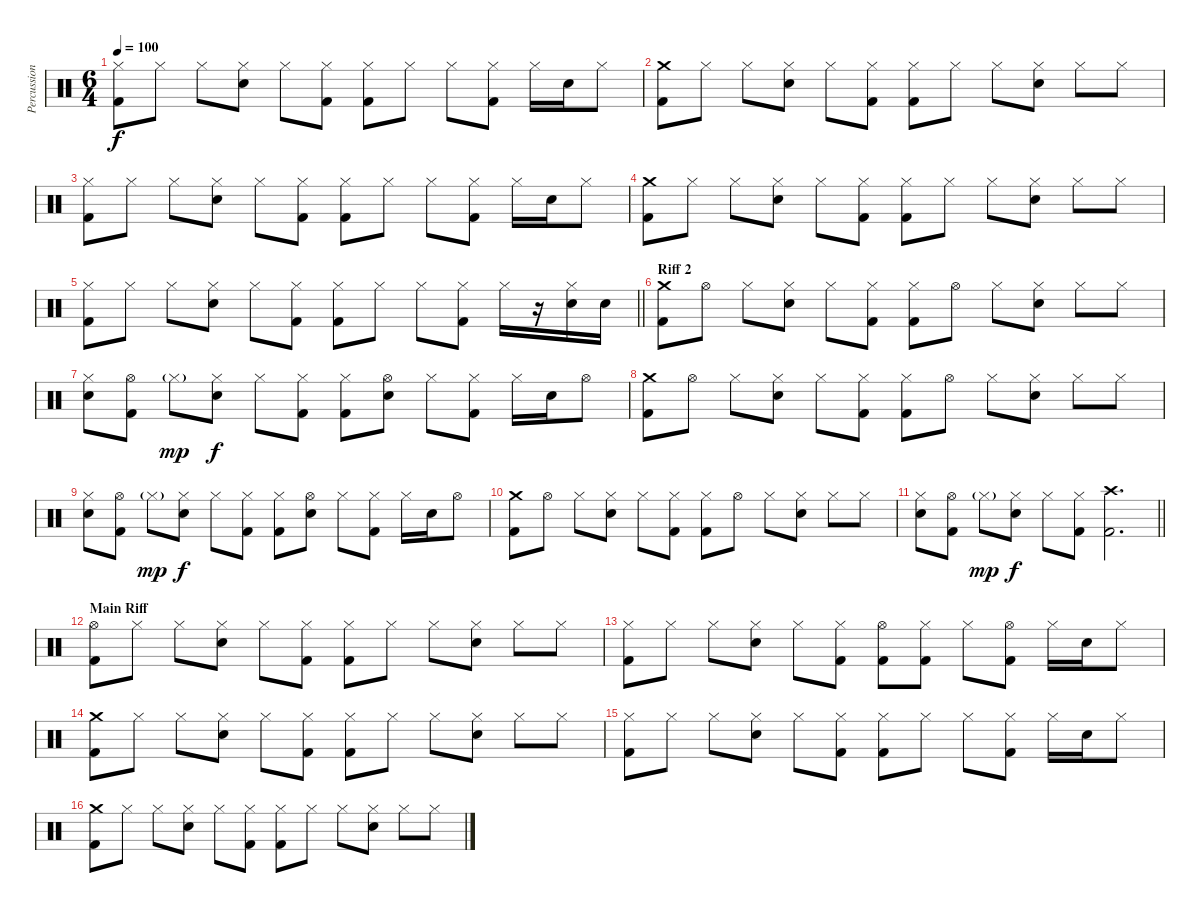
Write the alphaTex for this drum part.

\track ("Percussions" "Percussion") {instrument percussion}
\staff {score}
\articulation defaults
\ts (6 4)
\tempo 100
\clef neutral
\ks c
("Hi-Hat (closed)" "Kick (hit) 2").8{dy f} "Hi-Hat (closed)".8 "Hi-Hat (closed)".8 ("Electric Snare (hit)" "Hi-Hat (closed)").8 "Hi-Hat (closed)".8 ("Hi-Hat (closed)" "Kick (hit) 2").8 ("Hi-Hat (closed)" "Kick (hit) 2").8 "Hi-Hat (closed)".8 "Hi-Hat (closed)".8 ("Hi-Hat (closed)" "Kick (hit) 2").8 "Hi-Hat (closed)".16 "Electric Snare (hit)".16 "Hi-Hat (closed)".8 |
("Crash medium (hit)" "Kick (hit) 2").8 "Hi-Hat (closed)".8 "Hi-Hat (closed)".8 ("Electric Snare (hit)" "Hi-Hat (closed)").8 "Hi-Hat (closed)".8 ("Hi-Hat (closed)" "Kick (hit) 2").8 ("Hi-Hat (closed)" "Kick (hit) 2").8 "Hi-Hat (closed)".8 "Hi-Hat (closed)".8 ("Electric Snare (hit)" "Hi-Hat (closed)").8 "Hi-Hat (closed)".8 "Hi-Hat (closed)".8 |
("Hi-Hat (closed)" "Kick (hit) 2").8 "Hi-Hat (closed)".8 "Hi-Hat (closed)".8 ("Electric Snare (hit)" "Hi-Hat (closed)").8 "Hi-Hat (closed)".8 ("Hi-Hat (closed)" "Kick (hit) 2").8 ("Hi-Hat (closed)" "Kick (hit) 2").8 "Hi-Hat (closed)".8 "Hi-Hat (closed)".8 ("Hi-Hat (closed)" "Kick (hit) 2").8 "Hi-Hat (closed)".16 "Electric Snare (hit)".16 "Hi-Hat (closed)".8 |
("Crash medium (hit)" "Kick (hit) 2").8 "Hi-Hat (closed)".8 "Hi-Hat (closed)".8 ("Electric Snare (hit)" "Hi-Hat (closed)").8 "Hi-Hat (closed)".8 ("Hi-Hat (closed)" "Kick (hit) 2").8 ("Hi-Hat (closed)" "Kick (hit) 2").8 "Hi-Hat (closed)".8 "Hi-Hat (closed)".8 ("Electric Snare (hit)" "Hi-Hat (closed)").8 "Hi-Hat (closed)".8 "Hi-Hat (closed)".8 |
\barLineRight lightlight
("Hi-Hat (closed)" "Kick (hit) 2").8 "Hi-Hat (closed)".8 "Hi-Hat (closed)".8 ("Electric Snare (hit)" "Hi-Hat (closed)").8 "Hi-Hat (closed)".8 ("Hi-Hat (closed)" "Kick (hit) 2").8 ("Hi-Hat (closed)" "Kick (hit) 2").8 "Hi-Hat (closed)".8 "Hi-Hat (closed)".8 ("Hi-Hat (closed)" "Kick (hit) 2").8 "Hi-Hat (closed)".16 r.16 ("Electric Snare (hit)" "Hi-Hat (closed)").16 "Electric Snare (hit)".16 |
\section ("" "Riff 2")
("Crash medium (hit)" "Kick (hit) 2").8 "Hi-Hat (open)".8 "Hi-Hat (closed)".8 ("Electric Snare (hit)" "Hi-Hat (closed)").8 "Hi-Hat (closed)".8 ("Hi-Hat (closed)" "Kick (hit) 2").8 ("Hi-Hat (closed)" "Kick (hit) 2").8 "Hi-Hat (open)".8 "Hi-Hat (closed)".8 ("Electric Snare (hit)" "Hi-Hat (closed)").8 "Hi-Hat (closed)".8 "Hi-Hat (closed)".8 |
("Electric Snare (hit)" "Hi-Hat (closed)").8 ("Kick (hit) 2" "Hi-Hat (open)").8 "Hi-Hat (closed)"{g}.8{dy mp} ("Electric Snare (hit)" "Hi-Hat (closed)").8{dy f} "Hi-Hat (closed)".8 ("Kick (hit) 2" "Hi-Hat (closed)").8 ("Kick (hit) 2" "Hi-Hat (closed)").8 ("Electric Snare (hit)" "Hi-Hat (open)").8 "Hi-Hat (closed)".8 ("Kick (hit) 2" "Hi-Hat (closed)").8 "Hi-Hat (closed)".16 "Electric Snare (hit)".16 "Hi-Hat (open)".8 |
("Crash medium (hit)" "Kick (hit) 2").8 "Hi-Hat (open)".8 "Hi-Hat (closed)".8 ("Electric Snare (hit)" "Hi-Hat (closed)").8 "Hi-Hat (closed)".8 ("Hi-Hat (closed)" "Kick (hit) 2").8 ("Hi-Hat (closed)" "Kick (hit) 2").8 "Hi-Hat (open)".8 "Hi-Hat (closed)".8 ("Electric Snare (hit)" "Hi-Hat (closed)").8 "Hi-Hat (closed)".8 "Hi-Hat (closed)".8 |
("Electric Snare (hit)" "Hi-Hat (closed)").8 ("Kick (hit) 2" "Hi-Hat (open)").8 "Hi-Hat (closed)"{g}.8{dy mp} ("Electric Snare (hit)" "Hi-Hat (closed)").8{dy f} "Hi-Hat (closed)".8 ("Kick (hit) 2" "Hi-Hat (closed)").8 ("Kick (hit) 2" "Hi-Hat (closed)").8 ("Electric Snare (hit)" "Hi-Hat (open)").8 "Hi-Hat (closed)".8 ("Kick (hit) 2" "Hi-Hat (closed)").8 "Hi-Hat (closed)".16 "Electric Snare (hit)".16 "Hi-Hat (open)".8 |
("Crash medium (hit)" "Kick (hit) 2").8 "Hi-Hat (open)".8 "Hi-Hat (closed)".8 ("Electric Snare (hit)" "Hi-Hat (closed)").8 "Hi-Hat (closed)".8 ("Hi-Hat (closed)" "Kick (hit) 2").8 ("Hi-Hat (closed)" "Kick (hit) 2").8 "Hi-Hat (open)".8 "Hi-Hat (closed)".8 ("Electric Snare (hit)" "Hi-Hat (closed)").8 "Hi-Hat (closed)".8 "Hi-Hat (closed)".8 |
\barLineRight lightlight
("Electric Snare (hit)" "Hi-Hat (closed)").8 ("Kick (hit) 2" "Hi-Hat (open)").8 "Hi-Hat (closed)"{g}.8{dy mp} ("Electric Snare (hit)" "Hi-Hat (closed)").8{dy f} "Hi-Hat (closed)".8 ("Kick (hit) 2" "Hi-Hat (closed)").8 ("Kick (hit) 2" "Crash high (hit)").2{d} |
\section ("" "Main Riff")
("Hi-Hat (open)" "Kick (hit) 2").8 "Hi-Hat (closed)".8 "Hi-Hat (closed)".8 ("Electric Snare (hit)" "Hi-Hat (closed)").8 "Hi-Hat (closed)".8 ("Hi-Hat (closed)" "Kick (hit) 2").8 ("Hi-Hat (closed)" "Kick (hit) 2").8 "Hi-Hat (closed)".8 "Hi-Hat (closed)".8 ("Electric Snare (hit)" "Hi-Hat (closed)").8 "Hi-Hat (closed)".8 "Hi-Hat (closed)".8 |
("Hi-Hat (closed)" "Kick (hit) 2").8 "Hi-Hat (closed)".8 "Hi-Hat (closed)".8 ("Electric Snare (hit)" "Hi-Hat (closed)").8 "Hi-Hat (closed)".8 ("Hi-Hat (closed)" "Kick (hit) 2").8 ("Hi-Hat (open)" "Kick (hit) 2").8 ("Hi-Hat (closed)" "Kick (hit) 2").8 "Hi-Hat (closed)".8 ("Hi-Hat (open)" "Kick (hit) 2").8 "Hi-Hat (closed)".16 "Electric Snare (hit)".16 "Hi-Hat (closed)".8 |
("Crash medium (hit)" "Kick (hit) 2").8 "Hi-Hat (closed)".8 "Hi-Hat (closed)".8 ("Electric Snare (hit)" "Hi-Hat (closed)").8 "Hi-Hat (closed)".8 ("Hi-Hat (closed)" "Kick (hit) 2").8 ("Hi-Hat (closed)" "Kick (hit) 2").8 "Hi-Hat (closed)".8 "Hi-Hat (closed)".8 ("Electric Snare (hit)" "Hi-Hat (closed)").8 "Hi-Hat (closed)".8 "Hi-Hat (closed)".8 |
("Hi-Hat (closed)" "Kick (hit) 2").8 "Hi-Hat (closed)".8 "Hi-Hat (closed)".8 ("Electric Snare (hit)" "Hi-Hat (closed)").8 "Hi-Hat (closed)".8 ("Hi-Hat (closed)" "Kick (hit) 2").8 ("Hi-Hat (closed)" "Kick (hit) 2").8 "Hi-Hat (closed)".8 "Hi-Hat (closed)".8 ("Hi-Hat (closed)" "Kick (hit) 2").8 "Hi-Hat (closed)".16 "Electric Snare (hit)".16 "Hi-Hat (closed)".8 |
("Crash medium (hit)" "Kick (hit) 2").8 "Hi-Hat (closed)".8 "Hi-Hat (closed)".8 ("Electric Snare (hit)" "Hi-Hat (closed)").8 "Hi-Hat (closed)".8 ("Hi-Hat (closed)" "Kick (hit) 2").8 ("Hi-Hat (closed)" "Kick (hit) 2").8 "Hi-Hat (closed)".8 "Hi-Hat (closed)".8 ("Electric Snare (hit)" "Hi-Hat (closed)").8 "Hi-Hat (closed)".8 "Hi-Hat (closed)".8
